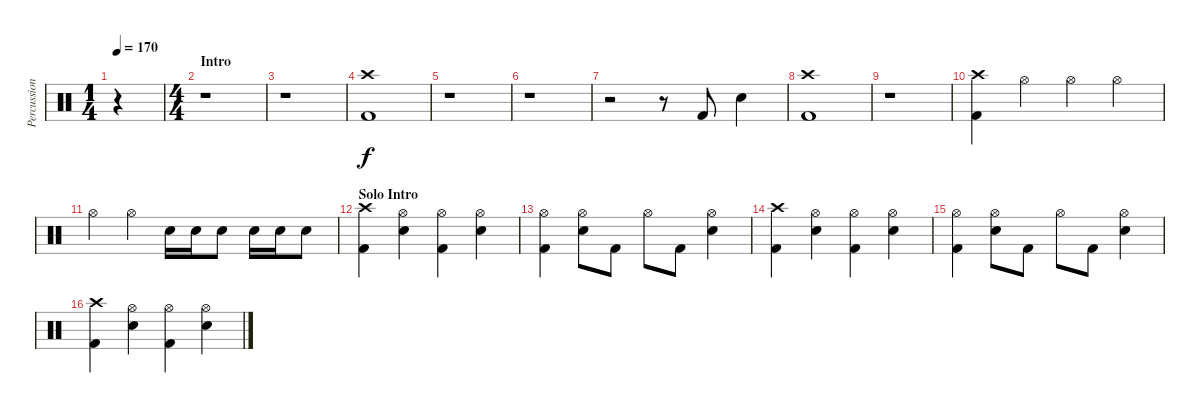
\track ("Percussions" "Percussion") {instrument percussion}
\staff {score}
\articulation defaults
\ts (1 4)
\tempo 170
\clef neutral
\ks c
r.4{dy f} |
\ts (4 4)
\section ("" "Intro")
r.1 |
r.1 |
("Crash high (hit)" "Kick (hit) 2").1 |
r.1 |
r.1 |
r.2 r.8 "Kick (hit) 2".8 "Electric Snare (hit)".4 |
("Crash high (hit)" "Kick (hit) 2").1 |
r.1 |
("Crash high (hit)" "Kick (hit) 2").4 "Hi-Hat (open)".4 "Hi-Hat (open)".4 "Hi-Hat (open)".4 |
"Hi-Hat (open)".4 "Hi-Hat (open)".4 "Electric Snare (hit)".16 "Electric Snare (hit)".16 "Electric Snare (hit)".8 "Electric Snare (hit)".16 "Electric Snare (hit)".16 "Electric Snare (hit)".8 |
\section ("" "Solo Intro")
("Crash high (hit)" "Kick (hit) 2").4 ("Hi-Hat (open)" "Electric Snare (hit)").4 ("Hi-Hat (open)" "Kick (hit) 2").4 ("Hi-Hat (open)" "Electric Snare (hit)").4 |
("Hi-Hat (open)" "Kick (hit) 2").4 ("Hi-Hat (open)" "Electric Snare (hit)").8 "Kick (hit) 2".8 "Hi-Hat (open)".8 "Kick (hit) 2".8 ("Hi-Hat (open)" "Electric Snare (hit)").4 |
("Crash high (hit)" "Kick (hit) 2").4 ("Hi-Hat (open)" "Electric Snare (hit)").4 ("Hi-Hat (open)" "Kick (hit) 2").4 ("Hi-Hat (open)" "Electric Snare (hit)").4 |
("Hi-Hat (open)" "Kick (hit) 2").4 ("Hi-Hat (open)" "Electric Snare (hit)").8 "Kick (hit) 2".8 "Hi-Hat (open)".8 "Kick (hit) 2".8 ("Hi-Hat (open)" "Electric Snare (hit)").4 |
("Crash high (hit)" "Kick (hit) 2").4 ("Hi-Hat (open)" "Electric Snare (hit)").4 ("Hi-Hat (open)" "Kick (hit) 2").4 ("Hi-Hat (open)" "Electric Snare (hit)").4
